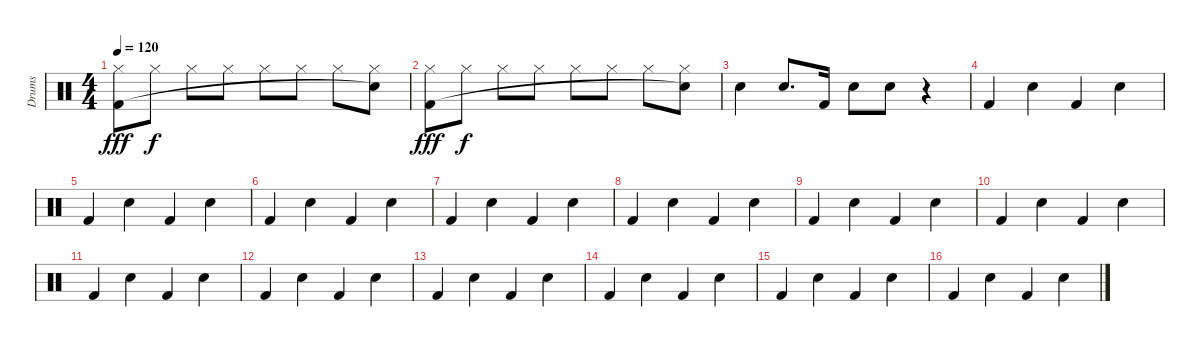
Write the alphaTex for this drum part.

\track ("Drums" "Drums") {instrument percussion}
\staff {score}
\articulation defaults
\ts (4 4)
\tempo 120
\clef neutral
\ks c
("Hi-Hat (closed)" "Kick (hit) 2").8{dy fff} "Hi-Hat (closed)".8{dy f} "Hi-Hat (closed)".8 "Hi-Hat (closed)".8 "Hi-Hat (closed)".8 "Hi-Hat (closed)".8 "Hi-Hat (closed)".8 ("Hi-Hat (closed)" "Snare (hit)"{t}).8 |
("Hi-Hat (closed)" "Kick (hit) 2").8{dy fff} "Hi-Hat (closed)".8{dy f} "Hi-Hat (closed)".8 "Hi-Hat (closed)".8 "Hi-Hat (closed)".8 "Hi-Hat (closed)".8 "Hi-Hat (closed)".8 ("Hi-Hat (closed)" "Snare (hit)"{t}).8 |
"Snare (hit) 2".4 "Snare (hit) 2".8{d} "Kick (hit) 2".16 "Snare (hit) 2".8 "Snare (hit) 2".8 r.4 |
"Kick (hit) 2".4 "Snare (hit) 2".4 "Kick (hit) 2".4 "Snare (hit) 2".4 |
"Kick (hit) 2".4 "Snare (hit) 2".4 "Kick (hit) 2".4 "Snare (hit) 2".4 |
"Kick (hit) 2".4 "Snare (hit) 2".4 "Kick (hit) 2".4 "Snare (hit) 2".4 |
"Kick (hit) 2".4 "Snare (hit) 2".4 "Kick (hit) 2".4 "Snare (hit) 2".4 |
"Kick (hit) 2".4 "Snare (hit) 2".4 "Kick (hit) 2".4 "Snare (hit) 2".4 |
"Kick (hit) 2".4 "Snare (hit) 2".4 "Kick (hit) 2".4 "Snare (hit) 2".4 |
"Kick (hit) 2".4 "Snare (hit) 2".4 "Kick (hit) 2".4 "Snare (hit) 2".4 |
"Kick (hit) 2".4 "Snare (hit) 2".4 "Kick (hit) 2".4 "Snare (hit) 2".4 |
"Kick (hit) 2".4 "Snare (hit) 2".4 "Kick (hit) 2".4 "Snare (hit) 2".4 |
"Kick (hit) 2".4 "Snare (hit) 2".4 "Kick (hit) 2".4 "Snare (hit) 2".4 |
"Kick (hit) 2".4 "Snare (hit) 2".4 "Kick (hit) 2".4 "Snare (hit) 2".4 |
"Kick (hit) 2".4 "Snare (hit) 2".4 "Kick (hit) 2".4 "Snare (hit) 2".4 |
"Kick (hit) 2".4 "Snare (hit) 2".4 "Kick (hit) 2".4 "Snare (hit) 2".4
